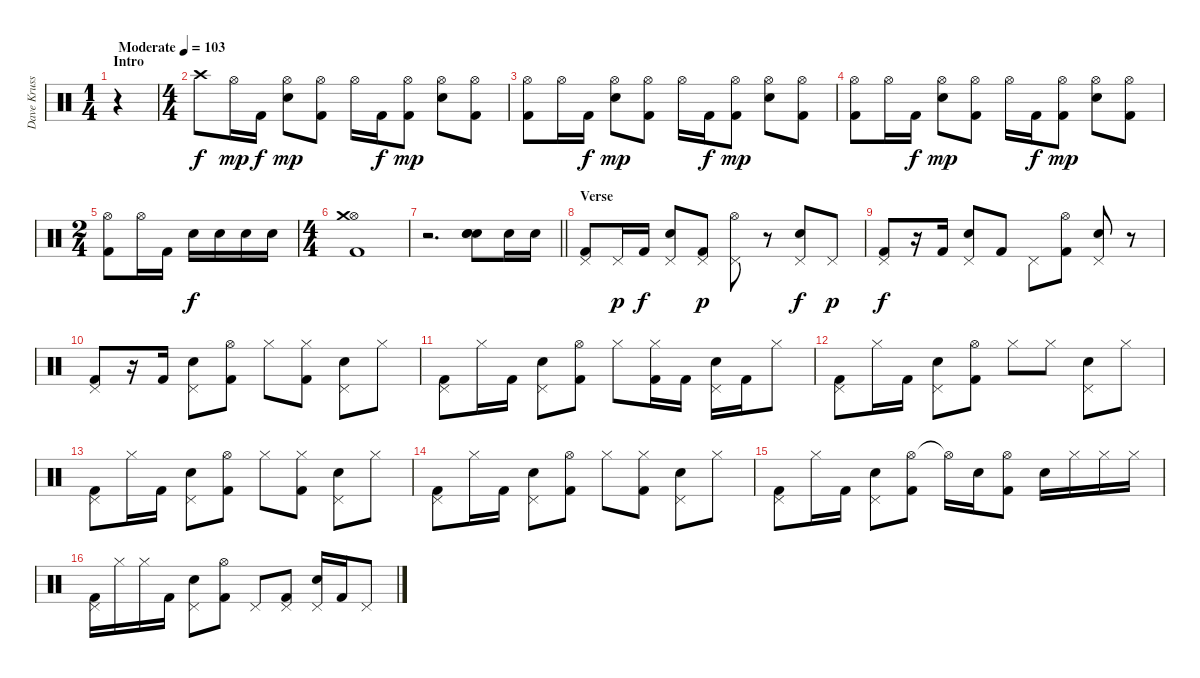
\track ("Dave Krussen" "Dave Kruss") {instrument percussion}
\staff {score}
\articulation defaults
\ts (1 4)
\section ("" "Intro")
\tempo (103 "Moderate")
\clef neutral
\ks c
r.4{dy f} |
\ts (4 4)
"Crash high (hit)".8 "Hi-Hat (open)".16{dy mp} "Kick (hit) 2".16{dy f} ("Hi-Hat (open)" "Electric Snare (hit)").8{dy mp} ("Hi-Hat (open)" "Kick (hit) 2").8 "Hi-Hat (open)".16 "Kick (hit) 2".16{dy f} ("Hi-Hat (open)" "Kick (hit) 2").8{dy mp} ("Hi-Hat (open)" "Electric Snare (hit)").8 ("Hi-Hat (open)" "Kick (hit) 2").8 |
("Hi-Hat (open)" "Kick (hit) 2").8 "Hi-Hat (open)".16 "Kick (hit) 2".16{dy f} ("Hi-Hat (open)" "Electric Snare (hit)").8{dy mp} ("Hi-Hat (open)" "Kick (hit) 2").8 "Hi-Hat (open)".16 "Kick (hit) 2".16{dy f} ("Hi-Hat (open)" "Kick (hit) 2").8{dy mp} ("Hi-Hat (open)" "Electric Snare (hit)").8 ("Hi-Hat (open)" "Kick (hit) 2").8 |
("Hi-Hat (open)" "Kick (hit) 2").8 "Hi-Hat (open)".16 "Kick (hit) 2".16{dy f} ("Hi-Hat (open)" "Electric Snare (hit)").8{dy mp} ("Hi-Hat (open)" "Kick (hit) 2").8 "Hi-Hat (open)".16 "Kick (hit) 2".16{dy f} ("Hi-Hat (open)" "Kick (hit) 2").8{dy mp} ("Hi-Hat (open)" "Electric Snare (hit)").8 ("Hi-Hat (open)" "Kick (hit) 2").8 |
\ts (2 4)
("Hi-Hat (open)" "Kick (hit) 2").8 "Hi-Hat (open)".16 "Kick (hit) 2".16 "Electric Snare (hit)".16{dy f} "Electric Snare (hit)".16 "Electric Snare (hit)".16 "Electric Snare (hit)".16 |
\ts (4 4)
("Hi-Hat (open)" "Crash medium (hit)" "Kick (hit) 2").1 |
\barLineRight lightlight
r.2{d} ("Electric Snare (hit)" "Electric Snare (hit)" "Snare (hit) 2").8{bd 60} "Electric Snare (hit)".16 "Electric Snare (hit)".16 |
\section ("" "Verse")
("Pedal Hi-Hat (hit)" "Kick (hit) 2").8 "Pedal Hi-Hat (hit)".16{dy p} "Kick (hit) 2".16{dy f} ("Pedal Hi-Hat (hit)" "Electric Snare (hit)").8 ("Pedal Hi-Hat (hit)" "Kick (hit) 2").8{dy p} ("Pedal Hi-Hat (hit)" "Hi-Hat (open)").8 r.8 ("Pedal Hi-Hat (hit)" "Electric Snare (hit)").8{dy f} "Pedal Hi-Hat (hit)".8{dy p} |
("Pedal Hi-Hat (hit)" "Kick (hit) 2").8{dy f} r.16 "Kick (hit) 2".16 ("Pedal Hi-Hat (hit)" "Electric Snare (hit)").8 "Kick (hit) 2".8 "Pedal Hi-Hat (hit)".8 ("Hi-Hat (open)" "Kick (hit) 2").8 ("Pedal Hi-Hat (hit)" "Electric Snare (hit)").8 r.8 |
("Pedal Hi-Hat (hit)" "Kick (hit) 2").8 r.16 "Kick (hit) 2".16 ("Pedal Hi-Hat (hit)" "Electric Snare (hit)").8 ("Hi-Hat (open)" "Kick (hit) 2").8 "Hi-Hat (closed)".8 ("Hi-Hat (closed)" "Kick (hit) 2").8 ("Pedal Hi-Hat (hit)" "Electric Snare (hit)").8 "Hi-Hat (closed)".8 |
("Pedal Hi-Hat (hit)" "Kick (hit) 2").8 "Hi-Hat (closed)".16 "Kick (hit) 2".16 ("Pedal Hi-Hat (hit)" "Electric Snare (hit)").8 ("Hi-Hat (open)" "Kick (hit) 2").8 "Hi-Hat (closed)".8 ("Hi-Hat (closed)" "Kick (hit) 2").16 "Kick (hit) 2".16 ("Pedal Hi-Hat (hit)" "Electric Snare (hit)").16 "Kick (hit) 2".16 "Hi-Hat (closed)".8 |
("Pedal Hi-Hat (hit)" "Kick (hit) 2").8 "Hi-Hat (closed)".16 "Kick (hit) 2".16 ("Pedal Hi-Hat (hit)" "Electric Snare (hit)").8 ("Hi-Hat (open)" "Kick (hit) 2").8 "Hi-Hat (closed)".8 "Hi-Hat (closed)".8 ("Pedal Hi-Hat (hit)" "Electric Snare (hit)").8 "Hi-Hat (closed)".8 |
("Pedal Hi-Hat (hit)" "Kick (hit) 2").8 "Hi-Hat (closed)".16 "Kick (hit) 2".16 ("Pedal Hi-Hat (hit)" "Electric Snare (hit)").8 ("Hi-Hat (open)" "Kick (hit) 2").8 "Hi-Hat (closed)".8 ("Hi-Hat (closed)" "Kick (hit) 2").8 ("Pedal Hi-Hat (hit)" "Electric Snare (hit)").8 "Hi-Hat (closed)".8 |
("Pedal Hi-Hat (hit)" "Kick (hit) 2").8 "Hi-Hat (closed)".16 "Kick (hit) 2".16 ("Pedal Hi-Hat (hit)" "Electric Snare (hit)").8 ("Hi-Hat (open)" "Kick (hit) 2").8 "Hi-Hat (closed)".8 ("Hi-Hat (closed)" "Kick (hit) 2").8 ("Pedal Hi-Hat (hit)" "Electric Snare (hit)").8 "Hi-Hat (closed)".8 |
("Pedal Hi-Hat (hit)" "Kick (hit) 2").8 "Hi-Hat (closed)".16 "Kick (hit) 2".16 ("Pedal Hi-Hat (hit)" "Electric Snare (hit)").8 ("Hi-Hat (open)" "Kick (hit) 2").8 "Hi-Hat (open)"{t}.16 "Electric Snare (hit)".16 ("Hi-Hat (open)" "Kick (hit) 2").8 "Electric Snare (hit)".16 "Hi-Hat (closed)".16 "Hi-Hat (closed)".16 "Hi-Hat (closed)".16 |
("Pedal Hi-Hat (hit)" "Kick (hit) 2").16 "Hi-Hat (closed)".16 "Hi-Hat (closed)".16 "Kick (hit) 2".16 ("Pedal Hi-Hat (hit)" "Electric Snare (hit)").8 ("Hi-Hat (open)" "Kick (hit) 2").8 "Pedal Hi-Hat (hit)".8 ("Pedal Hi-Hat (hit)" "Kick (hit) 2").8 ("Pedal Hi-Hat (hit)" "Electric Snare (hit)").16 "Kick (hit) 2".16 "Pedal Hi-Hat (hit)".8
